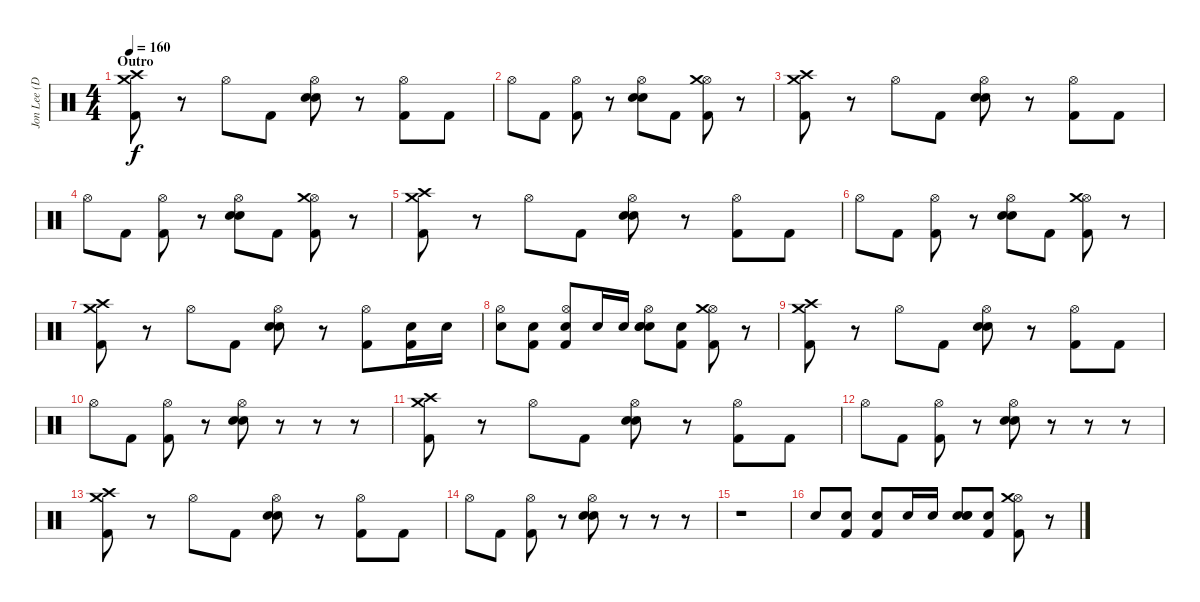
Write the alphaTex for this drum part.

\track ("Jon Lee (Drums)" "Jon Lee (D") {instrument percussion}
\staff {score}
\articulation defaults
\ts (4 4)
\section ("" "Outro")
\tempo 160
\clef neutral
\ks c
("Crash high (hit)" "Crash medium (hit)" "Kick (hit) 2").8{dy f} r.8 "Hi-Hat (open)".8 "Kick (hit) 2".8 ("Hi-Hat (open)" "Electric Snare (hit)" "Snare (hit) 2").8 r.8 ("Hi-Hat (open)" "Kick (hit) 2").8 "Kick (hit) 2".8 |
"Hi-Hat (open)".8 "Kick (hit) 2".8 ("Hi-Hat (open)" "Kick (hit) 2").8 r.8 ("Hi-Hat (open)" "Electric Snare (hit)" "Snare (hit) 2").8 "Kick (hit) 2".8 ("Hi-Hat (open)" "Crash medium (hit)" "Kick (hit) 2").8 r.8 |
("Crash high (hit)" "Crash medium (hit)" "Kick (hit) 2").8 r.8 "Hi-Hat (open)".8 "Kick (hit) 2".8 ("Hi-Hat (open)" "Electric Snare (hit)" "Snare (hit) 2").8 r.8 ("Hi-Hat (open)" "Kick (hit) 2").8 "Kick (hit) 2".8 |
"Hi-Hat (open)".8 "Kick (hit) 2".8 ("Hi-Hat (open)" "Kick (hit) 2").8 r.8 ("Hi-Hat (open)" "Electric Snare (hit)" "Snare (hit) 2").8 "Kick (hit) 2".8 ("Hi-Hat (open)" "Crash medium (hit)" "Kick (hit) 2").8 r.8 |
("Crash high (hit)" "Crash medium (hit)" "Kick (hit) 2").8 r.8 "Hi-Hat (open)".8 "Kick (hit) 2".8 ("Hi-Hat (open)" "Electric Snare (hit)" "Snare (hit) 2").8 r.8 ("Hi-Hat (open)" "Kick (hit) 2").8 "Kick (hit) 2".8 |
"Hi-Hat (open)".8 "Kick (hit) 2".8 ("Hi-Hat (open)" "Kick (hit) 2").8 r.8 ("Hi-Hat (open)" "Electric Snare (hit)" "Snare (hit) 2").8 "Kick (hit) 2".8 ("Hi-Hat (open)" "Crash medium (hit)" "Kick (hit) 2").8 r.8 |
("Crash high (hit)" "Crash medium (hit)" "Kick (hit) 2").8 r.8 "Hi-Hat (open)".8 "Kick (hit) 2".8 ("Hi-Hat (open)" "Electric Snare (hit)" "Snare (hit) 2").8 r.8 ("Hi-Hat (open)" "Kick (hit) 2").8 ("Electric Snare (hit)" "Kick (hit) 2").16 "Electric Snare (hit)".16 |
("Hi-Hat (open)" "Electric Snare (hit)").8 ("Electric Snare (hit)" "Kick (hit) 2").8 ("Hi-Hat (open)" "Electric Snare (hit)" "Kick (hit) 2").8 "Electric Snare (hit)".16 "Electric Snare (hit)".16 ("Hi-Hat (open)" "Electric Snare (hit)" "Electric Snare (hit)" "Snare (hit) 2").8 ("Electric Snare (hit)" "Kick (hit) 2").8 ("Hi-Hat (open)" "Crash medium (hit)" "Kick (hit) 2").8 r.8 |
("Crash high (hit)" "Crash medium (hit)" "Kick (hit) 2").8 r.8 "Hi-Hat (open)".8 "Kick (hit) 2".8 ("Hi-Hat (open)" "Electric Snare (hit)" "Snare (hit) 2").8 r.8 ("Hi-Hat (open)" "Kick (hit) 2").8 "Kick (hit) 2".8 |
"Hi-Hat (open)".8 "Kick (hit) 2".8 ("Hi-Hat (open)" "Kick (hit) 2").8 r.8 ("Hi-Hat (open)" "Electric Snare (hit)" "Snare (hit) 2").8 r.8 r.8 r.8 |
("Crash high (hit)" "Crash medium (hit)" "Kick (hit) 2").8 r.8 "Hi-Hat (open)".8 "Kick (hit) 2".8 ("Hi-Hat (open)" "Electric Snare (hit)" "Snare (hit) 2").8 r.8 ("Hi-Hat (open)" "Kick (hit) 2").8 "Kick (hit) 2".8 |
"Hi-Hat (open)".8 "Kick (hit) 2".8 ("Hi-Hat (open)" "Kick (hit) 2").8 r.8 ("Hi-Hat (open)" "Electric Snare (hit)" "Snare (hit) 2").8 r.8 r.8 r.8 |
("Crash high (hit)" "Crash medium (hit)" "Kick (hit) 2").8 r.8 "Hi-Hat (open)".8 "Kick (hit) 2".8 ("Hi-Hat (open)" "Electric Snare (hit)" "Snare (hit) 2").8 r.8 ("Hi-Hat (open)" "Kick (hit) 2").8 "Kick (hit) 2".8 |
"Hi-Hat (open)".8 "Kick (hit) 2".8 ("Hi-Hat (open)" "Kick (hit) 2").8 r.8 ("Hi-Hat (open)" "Electric Snare (hit)" "Snare (hit) 2").8 r.8 r.8 r.8 |
r.1 |
"Electric Snare (hit)".8 ("Electric Snare (hit)" "Kick (hit) 2").8 ("Electric Snare (hit)" "Kick (hit) 2").8 "Electric Snare (hit)".16 "Electric Snare (hit)".16 ("Electric Snare (hit)" "Electric Snare (hit)" "Snare (hit) 2").8 ("Electric Snare (hit)" "Kick (hit) 2").8 ("Hi-Hat (open)" "Crash medium (hit)" "Kick (hit) 2").8 r.8
